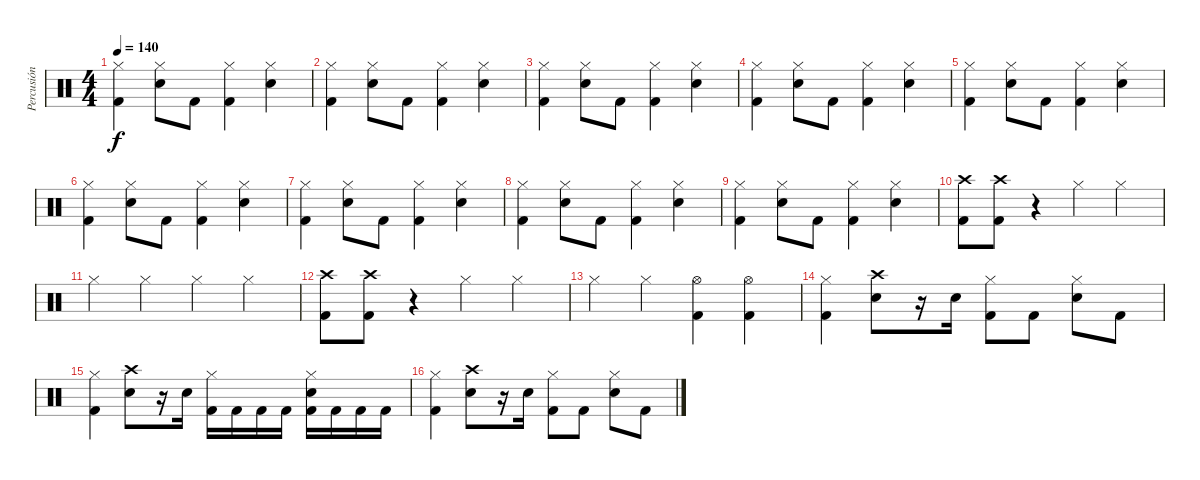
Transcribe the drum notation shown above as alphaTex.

\track ("Percusión" "Percusión") {instrument percussion}
\staff {score}
\articulation defaults
\ts (4 4)
\tempo 140
\clef neutral
\ks c
("Hi-Hat (closed)" "Kick (hit) 2").4{dy f} ("Hi-Hat (closed)" "Snare (hit) 2").8 "Kick (hit) 2".8 ("Hi-Hat (closed)" "Kick (hit) 2").4 ("Hi-Hat (closed)" "Snare (hit) 2").4 |
("Hi-Hat (closed)" "Kick (hit) 2").4 ("Hi-Hat (closed)" "Snare (hit) 2").8 "Kick (hit) 2".8 ("Hi-Hat (closed)" "Kick (hit) 2").4 ("Hi-Hat (closed)" "Snare (hit) 2").4 |
("Hi-Hat (closed)" "Kick (hit) 2").4 ("Hi-Hat (closed)" "Snare (hit) 2").8 "Kick (hit) 2".8 ("Hi-Hat (closed)" "Kick (hit) 2").4 ("Hi-Hat (closed)" "Snare (hit) 2").4 |
("Hi-Hat (closed)" "Kick (hit) 2").4 ("Hi-Hat (closed)" "Snare (hit) 2").8 "Kick (hit) 2".8 ("Hi-Hat (closed)" "Kick (hit) 2").4 ("Hi-Hat (closed)" "Snare (hit) 2").4 |
("Hi-Hat (closed)" "Kick (hit) 2").4 ("Hi-Hat (closed)" "Snare (hit) 2").8 "Kick (hit) 2".8 ("Hi-Hat (closed)" "Kick (hit) 2").4 ("Hi-Hat (closed)" "Snare (hit) 2").4 |
("Hi-Hat (closed)" "Kick (hit) 2").4 ("Hi-Hat (closed)" "Snare (hit) 2").8 "Kick (hit) 2".8 ("Hi-Hat (closed)" "Kick (hit) 2").4 ("Hi-Hat (closed)" "Snare (hit) 2").4 |
("Hi-Hat (closed)" "Kick (hit) 2").4 ("Hi-Hat (closed)" "Snare (hit) 2").8 "Kick (hit) 2".8 ("Hi-Hat (closed)" "Kick (hit) 2").4 ("Hi-Hat (closed)" "Snare (hit) 2").4 |
("Hi-Hat (closed)" "Kick (hit) 2").4 ("Hi-Hat (closed)" "Snare (hit) 2").8 "Kick (hit) 2".8 ("Hi-Hat (closed)" "Kick (hit) 2").4 ("Hi-Hat (closed)" "Snare (hit) 2").4 |
("Hi-Hat (closed)" "Kick (hit) 2").4 ("Hi-Hat (closed)" "Snare (hit) 2").8 "Kick (hit) 2".8 ("Hi-Hat (closed)" "Kick (hit) 2").4 ("Hi-Hat (closed)" "Snare (hit) 2").4 |
("Crash high (hit)" "Kick (hit) 2").8 ("Crash high (hit)" "Kick (hit) 2").8 r.4 "Hi-Hat (closed)".4 "Hi-Hat (closed)".4 |
"Hi-Hat (closed)".4 "Hi-Hat (closed)".4 "Hi-Hat (closed)".4 "Hi-Hat (closed)".4 |
("Crash high (hit)" "Kick (hit) 2").8 ("Crash high (hit)" "Kick (hit) 2").8 r.4 "Hi-Hat (closed)".4 "Hi-Hat (closed)".4 |
"Hi-Hat (closed)".4 "Hi-Hat (closed)".4 ("Hi-Hat (open)" "Kick (hit) 2").4 ("Hi-Hat (open)" "Kick (hit) 2").4 |
("Hi-Hat (closed)" "Kick (hit) 2").4 ("Crash high (hit)" "Snare (hit) 2").8 r.16 "Snare (hit) 2".16 ("Hi-Hat (closed)" "Kick (hit) 2").8 "Kick (hit) 2".8 ("Hi-Hat (closed)" "Snare (hit) 2").8 "Kick (hit) 2".8 |
("Hi-Hat (closed)" "Kick (hit) 2").4 ("Crash high (hit)" "Snare (hit) 2").8 r.16 "Snare (hit) 2".16 ("Hi-Hat (closed)" "Kick (hit) 2").16 "Kick (hit) 2".16 "Kick (hit) 2".16 "Kick (hit) 2".16 ("Hi-Hat (closed)" "Snare (hit) 2" "Kick (hit) 2").16 "Kick (hit) 2".16 "Kick (hit) 2".16 "Kick (hit) 2".16 |
("Hi-Hat (closed)" "Kick (hit) 2").4 ("Crash high (hit)" "Snare (hit) 2").8 r.16 "Snare (hit) 2".16 ("Hi-Hat (closed)" "Kick (hit) 2").8 "Kick (hit) 2".8 ("Hi-Hat (closed)" "Snare (hit) 2").8 "Kick (hit) 2".8
